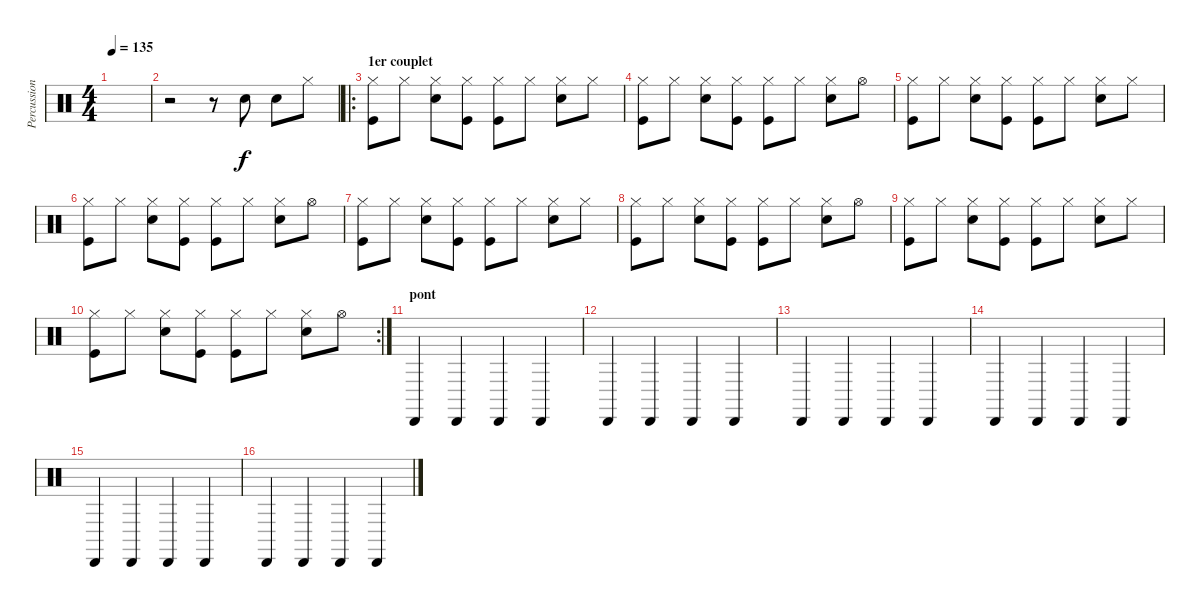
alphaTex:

\track ("Percussions" "Percussion") {instrument percussion}
\staff {score}
\articulation defaults
\ts (4 4)
\tempo 135
\clef neutral
\ks c
|
r.2 r.8 "Snare (hit) 2".8 "Snare (hit) 2".8{dy f} "Hi-Hat (closed)".8 |
\ro
\section ("" "1er couplet")
("Kick (hit)" "Hi-Hat (closed)").8 "Hi-Hat (closed)".8 ("Snare (hit) 2" "Hi-Hat (closed)").8 ("Kick (hit)" "Hi-Hat (closed)").8 ("Kick (hit)" "Hi-Hat (closed)").8 "Hi-Hat (closed)".8 ("Snare (hit) 2" "Hi-Hat (closed)").8 "Hi-Hat (closed)".8 |
("Kick (hit)" "Hi-Hat (closed)").8 "Hi-Hat (closed)".8 ("Snare (hit) 2" "Hi-Hat (closed)").8 ("Kick (hit)" "Hi-Hat (closed)").8 ("Kick (hit)" "Hi-Hat (closed)").8 "Hi-Hat (closed)".8 ("Snare (hit) 2" "Hi-Hat (closed)").8 "Hi-Hat (open)".8 |
("Kick (hit)" "Hi-Hat (closed)").8 "Hi-Hat (closed)".8 ("Snare (hit) 2" "Hi-Hat (closed)").8 ("Kick (hit)" "Hi-Hat (closed)").8 ("Kick (hit)" "Hi-Hat (closed)").8 "Hi-Hat (closed)".8 ("Snare (hit) 2" "Hi-Hat (closed)").8 "Hi-Hat (closed)".8 |
("Kick (hit)" "Hi-Hat (closed)").8 "Hi-Hat (closed)".8 ("Snare (hit) 2" "Hi-Hat (closed)").8 ("Kick (hit)" "Hi-Hat (closed)").8 ("Kick (hit)" "Hi-Hat (closed)").8 "Hi-Hat (closed)".8 ("Snare (hit) 2" "Hi-Hat (closed)").8 "Hi-Hat (open)".8 |
("Kick (hit)" "Hi-Hat (closed)").8 "Hi-Hat (closed)".8 ("Snare (hit) 2" "Hi-Hat (closed)").8 ("Kick (hit)" "Hi-Hat (closed)").8 ("Kick (hit)" "Hi-Hat (closed)").8 "Hi-Hat (closed)".8 ("Snare (hit) 2" "Hi-Hat (closed)").8 "Hi-Hat (closed)".8 |
("Kick (hit)" "Hi-Hat (closed)").8 "Hi-Hat (closed)".8 ("Snare (hit) 2" "Hi-Hat (closed)").8 ("Kick (hit)" "Hi-Hat (closed)").8 ("Kick (hit)" "Hi-Hat (closed)").8 "Hi-Hat (closed)".8 ("Snare (hit) 2" "Hi-Hat (closed)").8 "Hi-Hat (open)".8 |
("Kick (hit)" "Hi-Hat (closed)").8 "Hi-Hat (closed)".8 ("Snare (hit) 2" "Hi-Hat (closed)").8 ("Kick (hit)" "Hi-Hat (closed)").8 ("Kick (hit)" "Hi-Hat (closed)").8 "Hi-Hat (closed)".8 ("Snare (hit) 2" "Hi-Hat (closed)").8 "Hi-Hat (closed)".8 |
\rc 2
("Kick (hit)" "Hi-Hat (closed)").8 "Hi-Hat (closed)".8 ("Snare (hit) 2" "Hi-Hat (closed)").8 ("Kick (hit)" "Hi-Hat (closed)").8 ("Kick (hit)" "Hi-Hat (closed)").8 "Hi-Hat (closed)".8 ("Snare (hit) 2" "Hi-Hat (closed)").8 "Hi-Hat (open)".8 |
\section ("" "pont")
"Cabasa (hit)".4 "Cabasa (hit)".4 "Cabasa (hit)".4 "Cabasa (hit)".4 |
"Cabasa (hit)".4 "Cabasa (hit)".4 "Cabasa (hit)".4 "Cabasa (hit)".4 |
"Cabasa (hit)".4 "Cabasa (hit)".4 "Cabasa (hit)".4 "Cabasa (hit)".4 |
"Cabasa (hit)".4 "Cabasa (hit)".4 "Cabasa (hit)".4 "Cabasa (hit)".4 |
"Cabasa (hit)".4 "Cabasa (hit)".4 "Cabasa (hit)".4 "Cabasa (hit)".4 |
"Cabasa (hit)".4 "Cabasa (hit)".4 "Cabasa (hit)".4 "Cabasa (hit)".4
